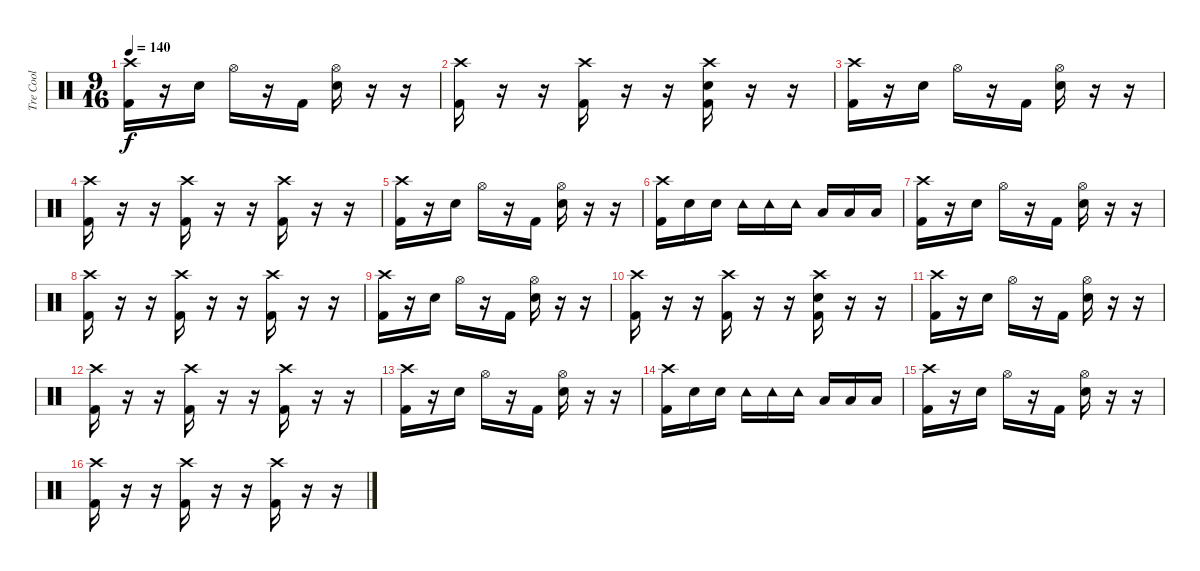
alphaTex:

\track ("Tre Cool" "Tre Cool") {instrument percussion}
\staff {score}
\articulation defaults
\ts (9 16)
\tempo 140
\clef neutral
\ks c
("Crash high (hit)" "Kick (hit) 2").16{dy f} r.16 "Snare (hit) 2".16 "Hi-Hat (open)".16 r.16 "Kick (hit) 2".16 ("Hi-Hat (open)" "Snare (hit) 2").16 r.16 r.16 |
("Crash high (hit)" "Kick (hit) 2").16 r.16 r.16 ("Crash high (hit)" "Kick (hit) 2").16 r.16 r.16 ("Crash high (hit)" "Snare (hit) 2" "Kick (hit) 2").16 r.16 r.16 |
("Crash high (hit)" "Kick (hit) 2").16 r.16 "Snare (hit) 2".16 "Hi-Hat (open)".16 r.16 "Kick (hit) 2".16 ("Hi-Hat (open)" "Snare (hit) 2").16 r.16 r.16 |
("Crash high (hit)" "Kick (hit) 2").16 r.16 r.16 ("Crash high (hit)" "Kick (hit) 2").16 r.16 r.16 ("Crash high (hit)" "Kick (hit) 2").16 r.16 r.16 |
("Crash high (hit)" "Kick (hit) 2").16 r.16 "Snare (hit) 2".16 "Hi-Hat (open)".16 r.16 "Kick (hit) 2".16 ("Hi-Hat (open)" "Snare (hit) 2").16 r.16 r.16 |
("Crash high (hit)" "Kick (hit) 2").16 "Snare (hit) 2".16 "Snare (hit) 2".16 "Tambourine (hit)".16 "Tambourine (hit)".16 "Tambourine (hit)".16 "Low Floor Tom (hit)".16 "Low Floor Tom (hit)".16 "Low Floor Tom (hit)".16 |
("Crash high (hit)" "Kick (hit) 2").16 r.16 "Snare (hit) 2".16 "Hi-Hat (open)".16 r.16 "Kick (hit) 2".16 ("Hi-Hat (open)" "Snare (hit) 2").16 r.16 r.16 |
("Crash high (hit)" "Kick (hit) 2").16 r.16 r.16 ("Crash high (hit)" "Kick (hit) 2").16 r.16 r.16 ("Crash high (hit)" "Kick (hit) 2").16 r.16 r.16 |
("Crash high (hit)" "Kick (hit) 2").16 r.16 "Snare (hit) 2".16 "Hi-Hat (open)".16 r.16 "Kick (hit) 2".16 ("Hi-Hat (open)" "Snare (hit) 2").16 r.16 r.16 |
("Crash high (hit)" "Kick (hit) 2").16 r.16 r.16 ("Crash high (hit)" "Kick (hit) 2").16 r.16 r.16 ("Crash high (hit)" "Snare (hit) 2" "Kick (hit) 2").16 r.16 r.16 |
("Crash high (hit)" "Kick (hit) 2").16 r.16 "Snare (hit) 2".16 "Hi-Hat (open)".16 r.16 "Kick (hit) 2".16 ("Hi-Hat (open)" "Snare (hit) 2").16 r.16 r.16 |
("Crash high (hit)" "Kick (hit) 2").16 r.16 r.16 ("Crash high (hit)" "Kick (hit) 2").16 r.16 r.16 ("Crash high (hit)" "Kick (hit) 2").16 r.16 r.16 |
("Crash high (hit)" "Kick (hit) 2").16 r.16 "Snare (hit) 2".16 "Hi-Hat (open)".16 r.16 "Kick (hit) 2".16 ("Hi-Hat (open)" "Snare (hit) 2").16 r.16 r.16 |
("Crash high (hit)" "Kick (hit) 2").16 "Snare (hit) 2".16 "Snare (hit) 2".16 "Tambourine (hit)".16 "Tambourine (hit)".16 "Tambourine (hit)".16 "Low Floor Tom (hit)".16 "Low Floor Tom (hit)".16 "Low Floor Tom (hit)".16 |
("Crash high (hit)" "Kick (hit) 2").16 r.16 "Snare (hit) 2".16 "Hi-Hat (open)".16 r.16 "Kick (hit) 2".16 ("Hi-Hat (open)" "Snare (hit) 2").16 r.16 r.16 |
("Crash high (hit)" "Kick (hit) 2").16 r.16 r.16 ("Crash high (hit)" "Kick (hit) 2").16 r.16 r.16 ("Crash high (hit)" "Kick (hit) 2").16 r.16 r.16
